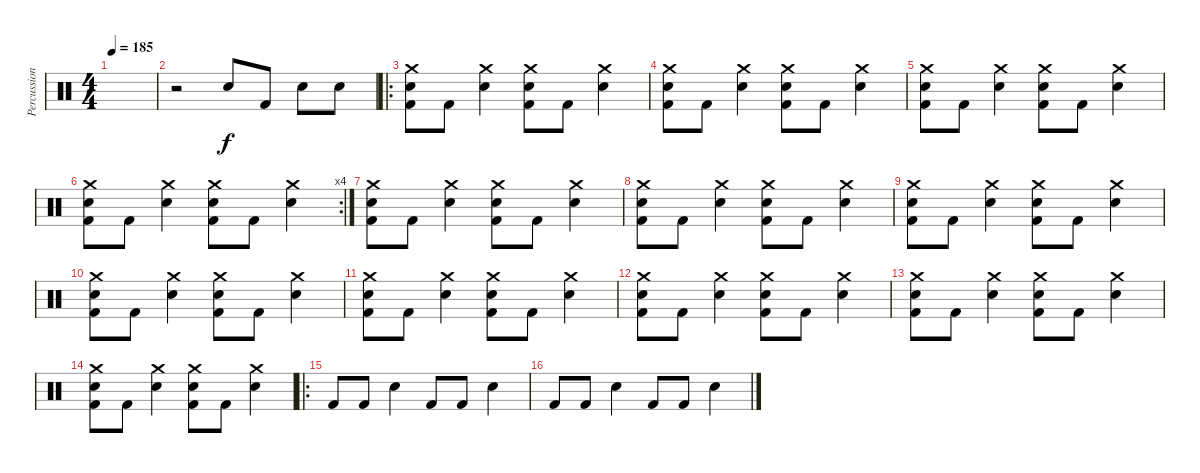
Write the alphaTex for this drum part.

\track ("Percussion" "Percussion") {instrument percussion}
\staff {score}
\articulation defaults
\ts (4 4)
\tempo 185
\clef neutral
\ks c
|
r.2 "Snare (hit) 2".8 "Kick (hit) 2".8 "Snare (hit) 2".8 "Snare (hit) 2".8 |
\ro
("Crash medium (hit)" "Snare (hit) 2" "Kick (hit) 2").8 "Kick (hit) 2".8 ("Crash medium (hit)" "Snare (hit) 2").4 ("Crash medium (hit)" "Snare (hit) 2" "Kick (hit) 2").8 "Kick (hit) 2".8 ("Crash medium (hit)" "Snare (hit) 2").4 |
("Crash medium (hit)" "Snare (hit) 2" "Kick (hit) 2").8 "Kick (hit) 2".8 ("Crash medium (hit)" "Snare (hit) 2").4 ("Crash medium (hit)" "Snare (hit) 2" "Kick (hit) 2").8 "Kick (hit) 2".8 ("Crash medium (hit)" "Snare (hit) 2").4 |
("Crash medium (hit)" "Snare (hit) 2" "Kick (hit) 2").8 "Kick (hit) 2".8 ("Crash medium (hit)" "Snare (hit) 2").4 ("Crash medium (hit)" "Snare (hit) 2" "Kick (hit) 2").8 "Kick (hit) 2".8 ("Crash medium (hit)" "Snare (hit) 2").4 |
\rc 4
("Crash medium (hit)" "Snare (hit) 2" "Kick (hit) 2").8 "Kick (hit) 2".8 ("Crash medium (hit)" "Snare (hit) 2").4 ("Crash medium (hit)" "Snare (hit) 2" "Kick (hit) 2").8 "Kick (hit) 2".8 ("Crash medium (hit)" "Snare (hit) 2").4 |
("Crash medium (hit)" "Snare (hit) 2" "Kick (hit) 2").8 "Kick (hit) 2".8 ("Crash medium (hit)" "Snare (hit) 2").4 ("Crash medium (hit)" "Snare (hit) 2" "Kick (hit) 2").8 "Kick (hit) 2".8 ("Crash medium (hit)" "Snare (hit) 2").4 |
("Crash medium (hit)" "Snare (hit) 2" "Kick (hit) 2").8 "Kick (hit) 2".8 ("Crash medium (hit)" "Snare (hit) 2").4 ("Crash medium (hit)" "Snare (hit) 2" "Kick (hit) 2").8 "Kick (hit) 2".8 ("Crash medium (hit)" "Snare (hit) 2").4 |
("Crash medium (hit)" "Snare (hit) 2" "Kick (hit) 2").8 "Kick (hit) 2".8 ("Crash medium (hit)" "Snare (hit) 2").4 ("Crash medium (hit)" "Snare (hit) 2" "Kick (hit) 2").8 "Kick (hit) 2".8 ("Crash medium (hit)" "Snare (hit) 2").4 |
("Crash medium (hit)" "Snare (hit) 2" "Kick (hit) 2").8 "Kick (hit) 2".8 ("Crash medium (hit)" "Snare (hit) 2").4 ("Crash medium (hit)" "Snare (hit) 2" "Kick (hit) 2").8 "Kick (hit) 2".8 ("Crash medium (hit)" "Snare (hit) 2").4 |
("Crash medium (hit)" "Snare (hit) 2" "Kick (hit) 2").8 "Kick (hit) 2".8 ("Crash medium (hit)" "Snare (hit) 2").4 ("Crash medium (hit)" "Snare (hit) 2" "Kick (hit) 2").8 "Kick (hit) 2".8 ("Crash medium (hit)" "Snare (hit) 2").4 |
("Crash medium (hit)" "Snare (hit) 2" "Kick (hit) 2").8 "Kick (hit) 2".8 ("Crash medium (hit)" "Snare (hit) 2").4 ("Crash medium (hit)" "Snare (hit) 2" "Kick (hit) 2").8 "Kick (hit) 2".8 ("Crash medium (hit)" "Snare (hit) 2").4 |
("Crash medium (hit)" "Snare (hit) 2" "Kick (hit) 2").8 "Kick (hit) 2".8 ("Crash medium (hit)" "Snare (hit) 2").4 ("Crash medium (hit)" "Snare (hit) 2" "Kick (hit) 2").8 "Kick (hit) 2".8 ("Crash medium (hit)" "Snare (hit) 2").4 |
("Crash medium (hit)" "Snare (hit) 2" "Kick (hit) 2").8 "Kick (hit) 2".8 ("Crash medium (hit)" "Snare (hit) 2").4 ("Crash medium (hit)" "Snare (hit) 2" "Kick (hit) 2").8 "Kick (hit) 2".8 ("Crash medium (hit)" "Snare (hit) 2").4 |
\ro "Kick (hit) 2".8 "Kick (hit) 2".8 "Snare (hit) 2".4 "Kick (hit) 2".8 "Kick (hit) 2".8 "Snare (hit) 2".4
|
"Kick (hit) 2".8 "Kick (hit) 2".8 "Snare (hit) 2".4 "Kick (hit) 2".8 "Kick (hit) 2".8 "Snare (hit) 2".4
